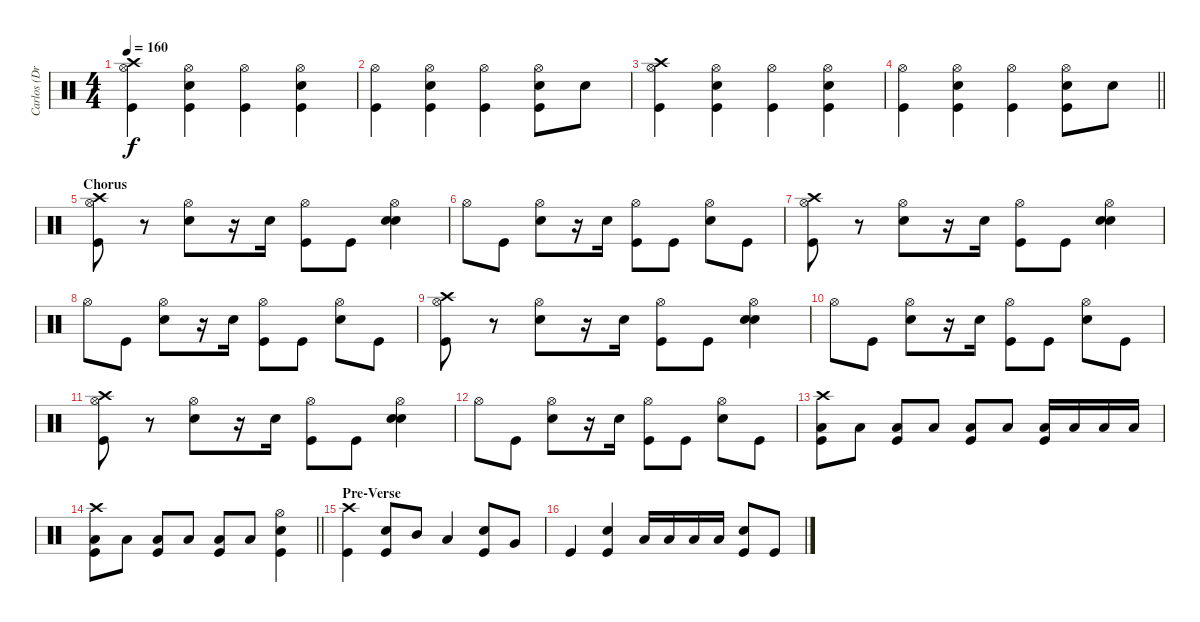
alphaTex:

\track ("Carlos (Drums)" "Carlos (Dr") {instrument percussion}
\staff {score}
\articulation defaults
\ts (4 4)
\tempo 160
\clef neutral
\ks c
("Crash high (hit)" "Hi-Hat (open)" "Kick (hit)").4{dy f} ("Hi-Hat (open)" "Snare (hit) 2" "Kick (hit)").4 ("Hi-Hat (open)" "Kick (hit)").4 ("Hi-Hat (open)" "Snare (hit) 2" "Kick (hit)").4 |
("Hi-Hat (open)" "Kick (hit)").4 ("Hi-Hat (open)" "Snare (hit) 2" "Kick (hit)").4 ("Hi-Hat (open)" "Kick (hit)").4 ("Hi-Hat (open)" "Snare (hit) 2" "Kick (hit)").8 "Snare (hit) 2".8 |
("Crash high (hit)" "Hi-Hat (open)" "Kick (hit)").4 ("Hi-Hat (open)" "Snare (hit) 2" "Kick (hit)").4 ("Hi-Hat (open)" "Kick (hit)").4 ("Hi-Hat (open)" "Snare (hit) 2" "Kick (hit)").4 |
\barLineRight lightlight
("Hi-Hat (open)" "Kick (hit)").4 ("Hi-Hat (open)" "Snare (hit) 2" "Kick (hit)").4 ("Hi-Hat (open)" "Kick (hit)").4 ("Hi-Hat (open)" "Snare (hit) 2" "Kick (hit)").8 "Snare (hit) 2".8 |
\section ("" "Chorus")
("Crash high (hit)" "Hi-Hat (open)" "Kick (hit)").8 r.8 ("Hi-Hat (open)" "Snare (hit) 2").8 r.16 "Snare (hit) 2".16 ("Hi-Hat (open)" "Kick (hit)").8 "Kick (hit)".8 ("Hi-Hat (open)" "Snare (hit) 2" "Snare (hit) 2").4 |
"Hi-Hat (open)".8 "Kick (hit)".8 ("Hi-Hat (open)" "Snare (hit) 2").8 r.16 "Snare (hit) 2".16 ("Hi-Hat (open)" "Kick (hit)").8 "Kick (hit)".8 ("Hi-Hat (open)" "Snare (hit) 2").8 "Kick (hit)".8 |
("Crash high (hit)" "Hi-Hat (open)" "Kick (hit)").8 r.8 ("Hi-Hat (open)" "Snare (hit) 2").8 r.16 "Snare (hit) 2".16 ("Hi-Hat (open)" "Kick (hit)").8 "Kick (hit)".8 ("Hi-Hat (open)" "Snare (hit) 2" "Snare (hit) 2").4 |
"Hi-Hat (open)".8 "Kick (hit)".8 ("Hi-Hat (open)" "Snare (hit) 2").8 r.16 "Snare (hit) 2".16 ("Hi-Hat (open)" "Kick (hit)").8 "Kick (hit)".8 ("Hi-Hat (open)" "Snare (hit) 2").8 "Kick (hit)".8 |
("Crash high (hit)" "Hi-Hat (open)" "Kick (hit)").8 r.8 ("Hi-Hat (open)" "Snare (hit) 2").8 r.16 "Snare (hit) 2".16 ("Hi-Hat (open)" "Kick (hit)").8 "Kick (hit)".8 ("Hi-Hat (open)" "Snare (hit) 2" "Snare (hit) 2").4 |
"Hi-Hat (open)".8 "Kick (hit)".8 ("Hi-Hat (open)" "Snare (hit) 2").8 r.16 "Snare (hit) 2".16 ("Hi-Hat (open)" "Kick (hit)").8 "Kick (hit)".8 ("Hi-Hat (open)" "Snare (hit) 2").8 "Kick (hit)".8 |
("Crash high (hit)" "Hi-Hat (open)" "Kick (hit)").8 r.8 ("Hi-Hat (open)" "Snare (hit) 2").8 r.16 "Snare (hit) 2".16 ("Hi-Hat (open)" "Kick (hit)").8 "Kick (hit)".8 ("Hi-Hat (open)" "Snare (hit) 2" "Snare (hit) 2").4 |
"Hi-Hat (open)".8 "Kick (hit)".8 ("Hi-Hat (open)" "Snare (hit) 2").8 r.16 "Snare (hit) 2".16 ("Hi-Hat (open)" "Kick (hit)").8 "Kick (hit)".8 ("Hi-Hat (open)" "Snare (hit) 2").8 "Kick (hit)".8 |
("Crash high (hit)" "Low Floor Tom (hit)" "Kick (hit)").8 "Low Floor Tom (hit)".8 ("Low Floor Tom (hit)" "Kick (hit)").8 "Low Floor Tom (hit)".8 ("Low Floor Tom (hit)" "Kick (hit)").8 "Low Floor Tom (hit)".8 ("Low Floor Tom (hit)" "Kick (hit)").16 "Low Floor Tom (hit)".16 "Low Floor Tom (hit)".16 "Low Floor Tom (hit)".16 |
\barLineRight lightlight
("Crash high (hit)" "Low Floor Tom (hit)" "Kick (hit)").8 "Low Floor Tom (hit)".8 ("Low Floor Tom (hit)" "Kick (hit)").8 "Low Floor Tom (hit)".8 ("Low Floor Tom (hit)" "Kick (hit)").8 "Low Floor Tom (hit)".8 ("Hi-Hat (open)" "Snare (hit) 2" "Kick (hit)").4 |
\section ("" "Pre-Verse")
("Crash high (hit)" "Kick (hit)").4 ("Snare (hit) 2" "Kick (hit)").8 "Mid Tom (hit)".8 "Low Tom (hit)".4 ("Snare (hit) 2" "Kick (hit)").8 "Very Low Tom (hit)".8 |
"Kick (hit)".4 ("Snare (hit) 2" "Kick (hit)").4 "Low Tom (hit)".16 "Low Tom (hit)".16 "Low Tom (hit)".16 "Low Tom (hit)".16 ("Snare (hit) 2" "Kick (hit)").8 "Kick (hit)".8
